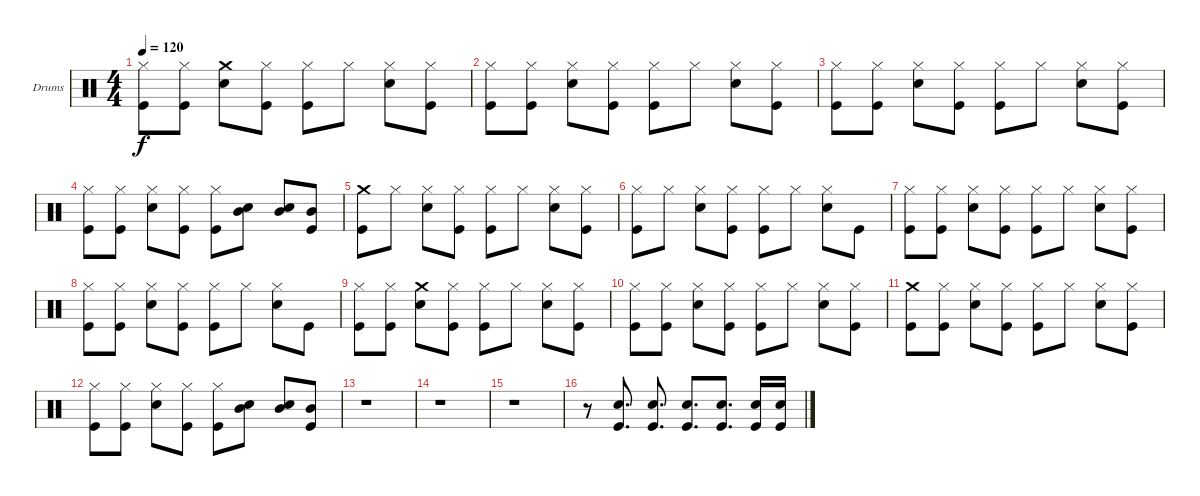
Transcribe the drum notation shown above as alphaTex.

\defaultSystemsLayout 4
\bracketExtendMode groupsimilarinstruments
\firstSystemTrackNameOrientation horizontal
\otherSystemsTrackNameOrientation horizontal
\track ("Stefan Schwarzmann" "Drums") {instrument percussion}
\staff {score}
\articulation defaults
\ts (4 4)
\tempo 120
\clef neutral
\ks c
("Hi-Hat (closed)" "Kick (hit)").8{dy f} ("Hi-Hat (closed)" "Kick (hit)").8 ("Crash medium (hit)" "Snare (hit) 2").8 ("Hi-Hat (closed)" "Kick (hit)").8 ("Hi-Hat (closed)" "Kick (hit)").8 "Hi-Hat (closed)".8 ("Hi-Hat (closed)" "Snare (hit) 2").8 ("Hi-Hat (closed)" "Kick (hit)").8 |
("Hi-Hat (closed)" "Kick (hit)").8 ("Hi-Hat (closed)" "Kick (hit)").8 ("Hi-Hat (closed)" "Snare (hit) 2").8 ("Hi-Hat (closed)" "Kick (hit)").8 ("Hi-Hat (closed)" "Kick (hit)").8 "Hi-Hat (closed)".8 ("Hi-Hat (closed)" "Snare (hit) 2").8 ("Hi-Hat (closed)" "Kick (hit)").8 |
("Hi-Hat (closed)" "Kick (hit)").8 ("Hi-Hat (closed)" "Kick (hit)").8 ("Hi-Hat (closed)" "Snare (hit) 2").8 ("Hi-Hat (closed)" "Kick (hit)").8 ("Hi-Hat (closed)" "Kick (hit)").8 "Hi-Hat (closed)".8 ("Hi-Hat (closed)" "Snare (hit) 2").8 ("Hi-Hat (closed)" "Kick (hit)").8 |
("Hi-Hat (closed)" "Kick (hit)").8 ("Hi-Hat (closed)" "Kick (hit)").8 ("Hi-Hat (closed)" "Snare (hit) 2").8 ("Hi-Hat (closed)" "Kick (hit)").8 ("Hi-Hat (closed)" "Kick (hit)").8 ("Mid Tom (hit)" "Snare (hit) 2").8 ("Mid Tom (hit)" "Snare (hit) 2").8 ("Mid Tom (hit)" "Kick (hit)").8 |
("Kick (hit)" "Crash medium (hit)").8 "Hi-Hat (closed)".8 ("Hi-Hat (closed)" "Snare (hit) 2").8 ("Hi-Hat (closed)" "Kick (hit)").8 ("Hi-Hat (closed)" "Kick (hit)").8 "Hi-Hat (closed)".8 ("Hi-Hat (closed)" "Snare (hit) 2").8 ("Hi-Hat (closed)" "Kick (hit)").8 |
("Hi-Hat (closed)" "Kick (hit)").8 "Hi-Hat (closed)".8 ("Hi-Hat (closed)" "Snare (hit) 2").8 ("Hi-Hat (closed)" "Kick (hit)").8 ("Hi-Hat (closed)" "Kick (hit)").8 "Hi-Hat (closed)".8 ("Hi-Hat (closed)" "Snare (hit) 2").8 "Kick (hit)".8 |
("Hi-Hat (closed)" "Kick (hit)").8 ("Hi-Hat (closed)" "Kick (hit)").8 ("Hi-Hat (closed)" "Snare (hit) 2").8 ("Hi-Hat (closed)" "Kick (hit)").8 ("Hi-Hat (closed)" "Kick (hit)").8 "Hi-Hat (closed)".8 ("Hi-Hat (closed)" "Snare (hit) 2").8 ("Hi-Hat (closed)" "Kick (hit)").8 |
("Hi-Hat (closed)" "Kick (hit)").8 ("Hi-Hat (closed)" "Kick (hit)").8 ("Hi-Hat (closed)" "Snare (hit) 2").8 ("Hi-Hat (closed)" "Kick (hit)").8 ("Hi-Hat (closed)" "Kick (hit)").8 "Hi-Hat (closed)".8 ("Hi-Hat (closed)" "Snare (hit) 2").8 "Kick (hit)".8 |
("Hi-Hat (closed)" "Kick (hit)").8 ("Hi-Hat (closed)" "Kick (hit)").8 ("Crash medium (hit)" "Snare (hit) 2").8 ("Hi-Hat (closed)" "Kick (hit)").8 ("Hi-Hat (closed)" "Kick (hit)").8 "Hi-Hat (closed)".8 ("Hi-Hat (closed)" "Snare (hit) 2").8 ("Hi-Hat (closed)" "Kick (hit)").8 |
("Hi-Hat (closed)" "Kick (hit)").8 ("Hi-Hat (closed)" "Kick (hit)").8 ("Hi-Hat (closed)" "Snare (hit) 2").8 ("Hi-Hat (closed)" "Kick (hit)").8 ("Hi-Hat (closed)" "Kick (hit)").8 "Hi-Hat (closed)".8 ("Hi-Hat (closed)" "Snare (hit) 2").8 ("Hi-Hat (closed)" "Kick (hit)").8 |
("Crash medium (hit)" "Kick (hit)").8 ("Hi-Hat (closed)" "Kick (hit)").8 ("Hi-Hat (closed)" "Snare (hit) 2").8 ("Hi-Hat (closed)" "Kick (hit)").8 ("Hi-Hat (closed)" "Kick (hit)").8 "Hi-Hat (closed)".8 ("Hi-Hat (closed)" "Snare (hit) 2").8 ("Hi-Hat (closed)" "Kick (hit)").8 |
("Hi-Hat (closed)" "Kick (hit)").8 ("Hi-Hat (closed)" "Kick (hit)").8 ("Hi-Hat (closed)" "Snare (hit) 2").8 ("Hi-Hat (closed)" "Kick (hit)").8 ("Hi-Hat (closed)" "Kick (hit)").8 ("Mid Tom (hit)" "Snare (hit) 2").8 ("Mid Tom (hit)" "Snare (hit) 2").8 ("Mid Tom (hit)" "Kick (hit)").8 |
r.1 |
r.1 |
r.1 |
r.8 ("Snare (hit) 2" "Kick (hit)").8{d} ("Snare (hit) 2" "Kick (hit)").8{d} ("Snare (hit) 2" "Kick (hit)").8{d} ("Snare (hit) 2" "Kick (hit)").8{d} ("Snare (hit) 2" "Kick (hit)").16 ("Snare (hit) 2" "Kick (hit)").16
